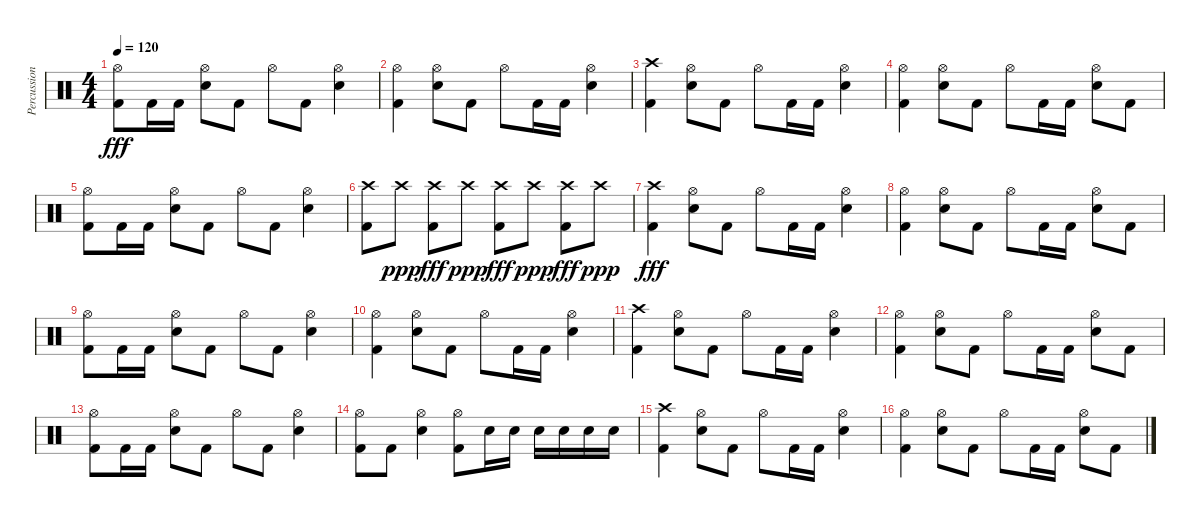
\track ("Percussion" "Percussion") {instrument percussion}
\staff {score}
\articulation defaults
\ts (4 4)
\tempo 120
\clef neutral
\ks c
("Hi-Hat (open)" "Kick (hit) 2").8{dy fff} "Kick (hit) 2".16 "Kick (hit) 2".16 ("Hi-Hat (open)" "Snare (hit) 2").8 "Kick (hit) 2".8 "Hi-Hat (open)".8 "Kick (hit) 2".8 ("Hi-Hat (open)" "Snare (hit) 2").4 |
("Hi-Hat (open)" "Kick (hit) 2").4 ("Hi-Hat (open)" "Snare (hit) 2").8 "Kick (hit) 2".8 "Hi-Hat (open)".8 "Kick (hit) 2".16 "Kick (hit) 2".16 ("Hi-Hat (open)" "Snare (hit) 2").4 |
("Crash high (hit)" "Kick (hit) 2").4 ("Hi-Hat (open)" "Snare (hit) 2").8 "Kick (hit) 2".8 "Hi-Hat (open)".8 "Kick (hit) 2".16 "Kick (hit) 2".16 ("Hi-Hat (open)" "Snare (hit) 2").4 |
("Hi-Hat (open)" "Kick (hit) 2").4 ("Hi-Hat (open)" "Snare (hit) 2").8 "Kick (hit) 2".8 "Hi-Hat (open)".8 "Kick (hit) 2".16 "Kick (hit) 2".16 ("Hi-Hat (open)" "Snare (hit) 2").8 "Kick (hit) 2".8 |
("Hi-Hat (open)" "Kick (hit) 2").8 "Kick (hit) 2".16 "Kick (hit) 2".16 ("Hi-Hat (open)" "Snare (hit) 2").8 "Kick (hit) 2".8 "Hi-Hat (open)".8 "Kick (hit) 2".8 ("Hi-Hat (open)" "Snare (hit) 2").4 |
("Crash high (hit)" "Kick (hit) 2").8 "Crash high (hit)".8{dy ppp} ("Crash high (hit)" "Kick (hit) 2").8{dy fff} "Crash high (hit)".8{dy ppp} ("Crash high (hit)" "Kick (hit) 2").8{dy fff} "Crash high (hit)".8{dy ppp} ("Crash high (hit)" "Kick (hit) 2").8{dy fff} "Crash high (hit)".8{dy ppp} |
("Crash high (hit)" "Kick (hit) 2").4{dy fff} ("Hi-Hat (open)" "Snare (hit) 2").8 "Kick (hit) 2".8 "Hi-Hat (open)".8 "Kick (hit) 2".16 "Kick (hit) 2".16 ("Hi-Hat (open)" "Snare (hit) 2").4 |
("Hi-Hat (open)" "Kick (hit) 2").4 ("Hi-Hat (open)" "Snare (hit) 2").8 "Kick (hit) 2".8 "Hi-Hat (open)".8 "Kick (hit) 2".16 "Kick (hit) 2".16 ("Hi-Hat (open)" "Snare (hit) 2").8 "Kick (hit) 2".8 |
("Hi-Hat (open)" "Kick (hit) 2").8 "Kick (hit) 2".16 "Kick (hit) 2".16 ("Hi-Hat (open)" "Snare (hit) 2").8 "Kick (hit) 2".8 "Hi-Hat (open)".8 "Kick (hit) 2".8 ("Hi-Hat (open)" "Snare (hit) 2").4 |
("Hi-Hat (open)" "Kick (hit) 2").4 ("Hi-Hat (open)" "Snare (hit) 2").8 "Kick (hit) 2".8 "Hi-Hat (open)".8 "Kick (hit) 2".16 "Kick (hit) 2".16 ("Hi-Hat (open)" "Snare (hit) 2").4 |
("Crash high (hit)" "Kick (hit) 2").4 ("Hi-Hat (open)" "Snare (hit) 2").8 "Kick (hit) 2".8 "Hi-Hat (open)".8 "Kick (hit) 2".16 "Kick (hit) 2".16 ("Hi-Hat (open)" "Snare (hit) 2").4 |
("Hi-Hat (open)" "Kick (hit) 2").4 ("Hi-Hat (open)" "Snare (hit) 2").8 "Kick (hit) 2".8 "Hi-Hat (open)".8 "Kick (hit) 2".16 "Kick (hit) 2".16 ("Hi-Hat (open)" "Snare (hit) 2").8 "Kick (hit) 2".8 |
("Hi-Hat (open)" "Kick (hit) 2").8 "Kick (hit) 2".16 "Kick (hit) 2".16 ("Hi-Hat (open)" "Snare (hit) 2").8 "Kick (hit) 2".8 "Hi-Hat (open)".8 "Kick (hit) 2".8 ("Hi-Hat (open)" "Snare (hit) 2").4 |
("Hi-Hat (open)" "Kick (hit) 2").8 "Kick (hit) 2".8 ("Hi-Hat (open)" "Snare (hit) 2").4 ("Hi-Hat (open)" "Kick (hit) 2").8 "Snare (hit) 2".16 "Snare (hit) 2".16 "Snare (hit) 2".16 "Snare (hit) 2".16 "Snare (hit) 2".16 "Snare (hit) 2".16 |
("Crash high (hit)" "Kick (hit) 2").4 ("Hi-Hat (open)" "Snare (hit) 2").8 "Kick (hit) 2".8 "Hi-Hat (open)".8 "Kick (hit) 2".16 "Kick (hit) 2".16 ("Hi-Hat (open)" "Snare (hit) 2").4 |
("Hi-Hat (open)" "Kick (hit) 2").4 ("Hi-Hat (open)" "Snare (hit) 2").8 "Kick (hit) 2".8 "Hi-Hat (open)".8 "Kick (hit) 2".16 "Kick (hit) 2".16 ("Hi-Hat (open)" "Snare (hit) 2").8 "Kick (hit) 2".8
